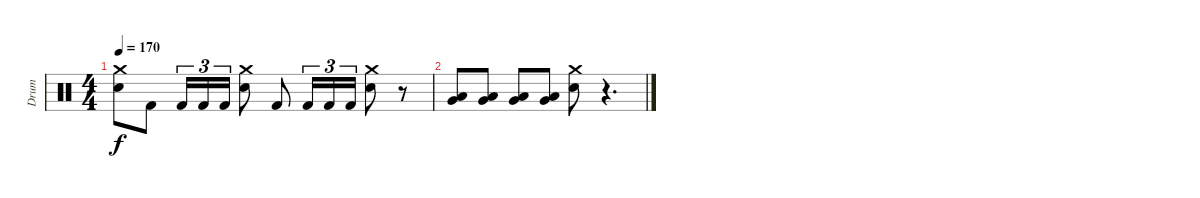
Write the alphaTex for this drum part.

\track ("Drum" "Drum") {instrument percussion}
\staff {score}
\articulation defaults
\ts (4 4)
\tempo 170
\clef neutral
\ks c
("Snare (hit) 2" "Crash medium (hit)").8{dy f} "Kick (hit) 2".8 "Kick (hit) 2".16{tu (3 2)} "Kick (hit) 2".16{tu (3 2)} "Kick (hit) 2".16{tu (3 2)} ("Snare (hit) 2" "Crash medium (hit)").8 "Kick (hit) 2".8 "Kick (hit) 2".16{tu (3 2)} "Kick (hit) 2".16{tu (3 2)} "Kick (hit) 2".16{tu (3 2)} ("Snare (hit) 2" "Crash medium (hit)").8 r.8 |
("Very Low Tom (hit)" "Low Tom (hit)").8 ("Very Low Tom (hit)" "Low Tom (hit)").8 ("Very Low Tom (hit)" "Low Tom (hit)").8 ("Very Low Tom (hit)" "Low Tom (hit)").8 ("Snare (hit) 2" "Crash medium (hit)").8 r.4{d}
